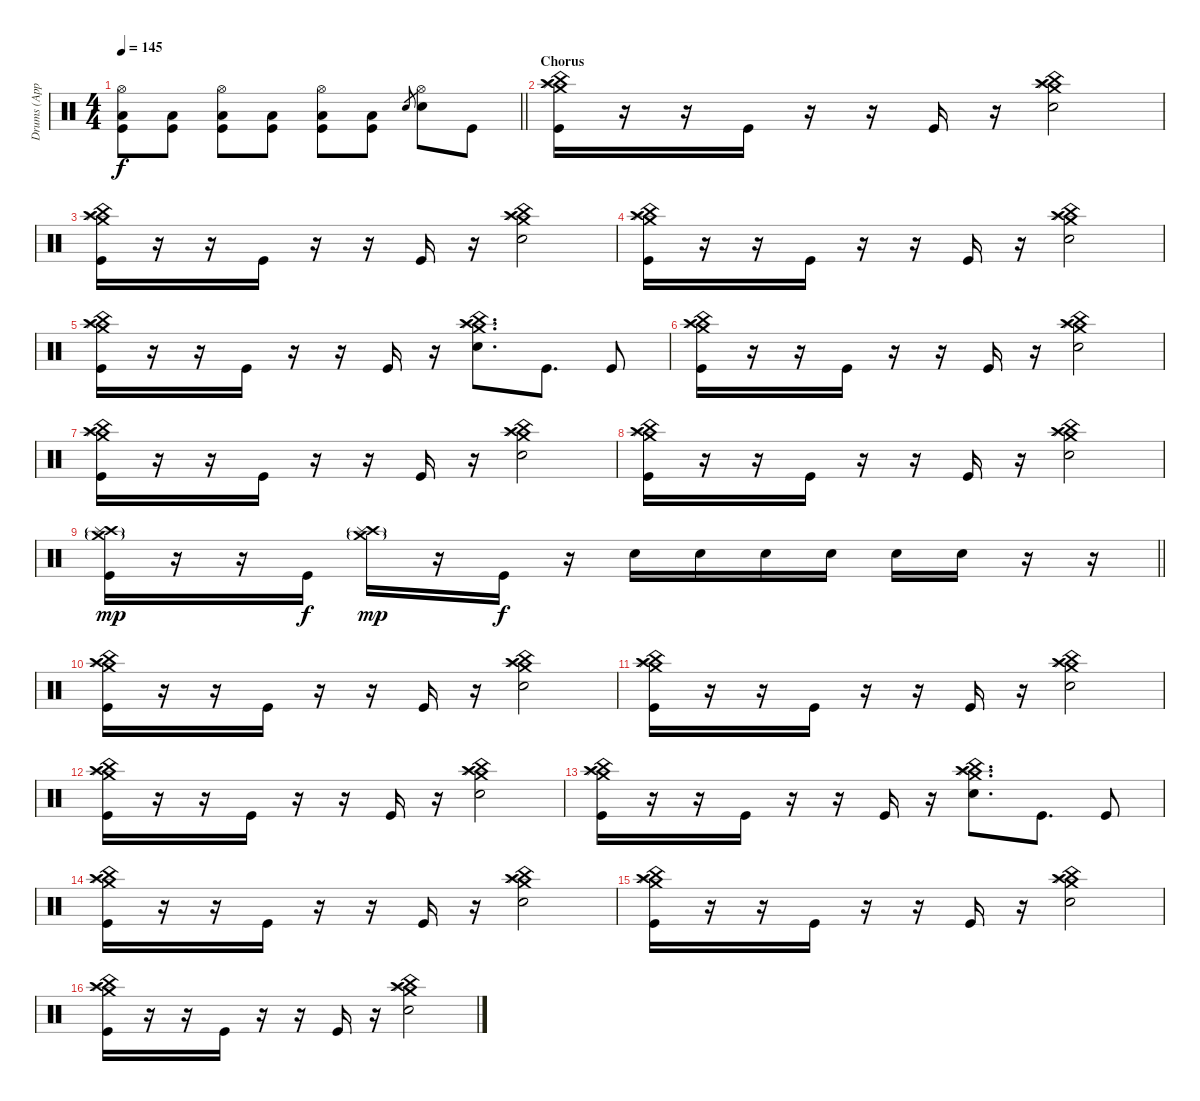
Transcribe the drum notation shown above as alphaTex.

\track ("Drums (Approx.)" "Drums (App") {instrument percussion}
\staff {score}
\articulation defaults
\ts (4 4)
\tempo 145
\clef neutral
\barLineRight lightlight
\ks c
("Hi-Hat (open)" "Low Floor Tom (hit)" "Kick (hit)").8{dy f} ("Low Floor Tom (hit)" "Kick (hit)").8 ("Hi-Hat (open)" "Low Floor Tom (hit)" "Kick (hit)").8 ("Low Floor Tom (hit)" "Kick (hit)").8 ("Hi-Hat (open)" "Low Floor Tom (hit)" "Kick (hit)").8 ("Low Floor Tom (hit)" "Kick (hit)").8 "Electric Snare (hit)".8{gr} ("Hi-Hat (open)" "Electric Snare (hit)").8 "Kick (hit)".8 |
\section ("" "Chorus")
("Crash high (hit)" "Crash medium (hit)" "Splash (hit)" "China (hit)" "Kick (hit)").16 r.16 r.16 "Kick (hit)".16 r.16 r.16 "Kick (hit)".16 r.16 ("Crash high (hit)" "Crash medium (hit)" "Splash (hit)" "China (hit)" "Electric Snare (hit)").2 |
("Crash high (hit)" "Crash medium (hit)" "Splash (hit)" "China (hit)" "Kick (hit)").16 r.16 r.16 "Kick (hit)".16 r.16 r.16 "Kick (hit)".16 r.16 ("Crash high (hit)" "Crash medium (hit)" "Splash (hit)" "China (hit)" "Electric Snare (hit)").2 |
("Crash high (hit)" "Crash medium (hit)" "Splash (hit)" "China (hit)" "Kick (hit)").16 r.16 r.16 "Kick (hit)".16 r.16 r.16 "Kick (hit)".16 r.16 ("Crash high (hit)" "Crash medium (hit)" "Splash (hit)" "China (hit)" "Electric Snare (hit)").2 |
("Crash high (hit)" "Crash medium (hit)" "Splash (hit)" "China (hit)" "Kick (hit)").16 r.16 r.16 "Kick (hit)".16 r.16 r.16 "Kick (hit)".16 r.16 ("Crash high (hit)" "Crash medium (hit)" "Splash (hit)" "China (hit)" "Electric Snare (hit)").8{d} "Kick (hit)".8{d} "Kick (hit)".8 |
("Crash high (hit)" "Crash medium (hit)" "Splash (hit)" "China (hit)" "Kick (hit)").16 r.16 r.16 "Kick (hit)".16 r.16 r.16 "Kick (hit)".16 r.16 ("Crash high (hit)" "Crash medium (hit)" "Splash (hit)" "China (hit)" "Electric Snare (hit)").2 |
("Crash high (hit)" "Crash medium (hit)" "Splash (hit)" "China (hit)" "Kick (hit)").16 r.16 r.16 "Kick (hit)".16 r.16 r.16 "Kick (hit)".16 r.16 ("Crash high (hit)" "Crash medium (hit)" "Splash (hit)" "China (hit)" "Electric Snare (hit)").2 |
("Crash high (hit)" "Crash medium (hit)" "Splash (hit)" "China (hit)" "Kick (hit)").16 r.16 r.16 "Kick (hit)".16 r.16 r.16 "Kick (hit)".16 r.16 ("Crash high (hit)" "Crash medium (hit)" "Splash (hit)" "China (hit)" "Electric Snare (hit)").2 |
\barLineRight lightlight
("Crash high (hit)"{g} "Crash medium (hit)"{g} "Splash (hit)" "Kick (hit)").16{dy mp} r.16 r.16 "Kick (hit)".16{dy f} ("Crash high (hit)"{g} "Crash medium (hit)"{g} "Splash (hit)").16{dy mp} r.16 "Kick (hit)".16{dy f} r.16 "Electric Snare (hit)".16 "Electric Snare (hit)".16 "Electric Snare (hit)".16 "Electric Snare (hit)".16 "Electric Snare (hit)".16 "Electric Snare (hit)".16 r.16 r.16 |
("Crash high (hit)" "Crash medium (hit)" "Splash (hit)" "China (hit)" "Kick (hit)").16 r.16 r.16 "Kick (hit)".16 r.16 r.16 "Kick (hit)".16 r.16 ("Crash high (hit)" "Crash medium (hit)" "Splash (hit)" "China (hit)" "Electric Snare (hit)").2 |
("Crash high (hit)" "Crash medium (hit)" "Splash (hit)" "China (hit)" "Kick (hit)").16 r.16 r.16 "Kick (hit)".16 r.16 r.16 "Kick (hit)".16 r.16 ("Crash high (hit)" "Crash medium (hit)" "Splash (hit)" "China (hit)" "Electric Snare (hit)").2 |
("Crash high (hit)" "Crash medium (hit)" "Splash (hit)" "China (hit)" "Kick (hit)").16 r.16 r.16 "Kick (hit)".16 r.16 r.16 "Kick (hit)".16 r.16 ("Crash high (hit)" "Crash medium (hit)" "Splash (hit)" "China (hit)" "Electric Snare (hit)").2 |
("Crash high (hit)" "Crash medium (hit)" "Splash (hit)" "China (hit)" "Kick (hit)").16 r.16 r.16 "Kick (hit)".16 r.16 r.16 "Kick (hit)".16 r.16 ("Crash high (hit)" "Crash medium (hit)" "Splash (hit)" "China (hit)" "Electric Snare (hit)").8{d} "Kick (hit)".8{d} "Kick (hit)".8 |
("Crash high (hit)" "Crash medium (hit)" "Splash (hit)" "China (hit)" "Kick (hit)").16 r.16 r.16 "Kick (hit)".16 r.16 r.16 "Kick (hit)".16 r.16 ("Crash high (hit)" "Crash medium (hit)" "Splash (hit)" "China (hit)" "Electric Snare (hit)").2 |
("Crash high (hit)" "Crash medium (hit)" "Splash (hit)" "China (hit)" "Kick (hit)").16 r.16 r.16 "Kick (hit)".16 r.16 r.16 "Kick (hit)".16 r.16 ("Crash high (hit)" "Crash medium (hit)" "Splash (hit)" "China (hit)" "Electric Snare (hit)").2 |
("Crash high (hit)" "Crash medium (hit)" "Splash (hit)" "China (hit)" "Kick (hit)").16 r.16 r.16 "Kick (hit)".16 r.16 r.16 "Kick (hit)".16 r.16 ("Crash high (hit)" "Crash medium (hit)" "Splash (hit)" "China (hit)" "Electric Snare (hit)").2
